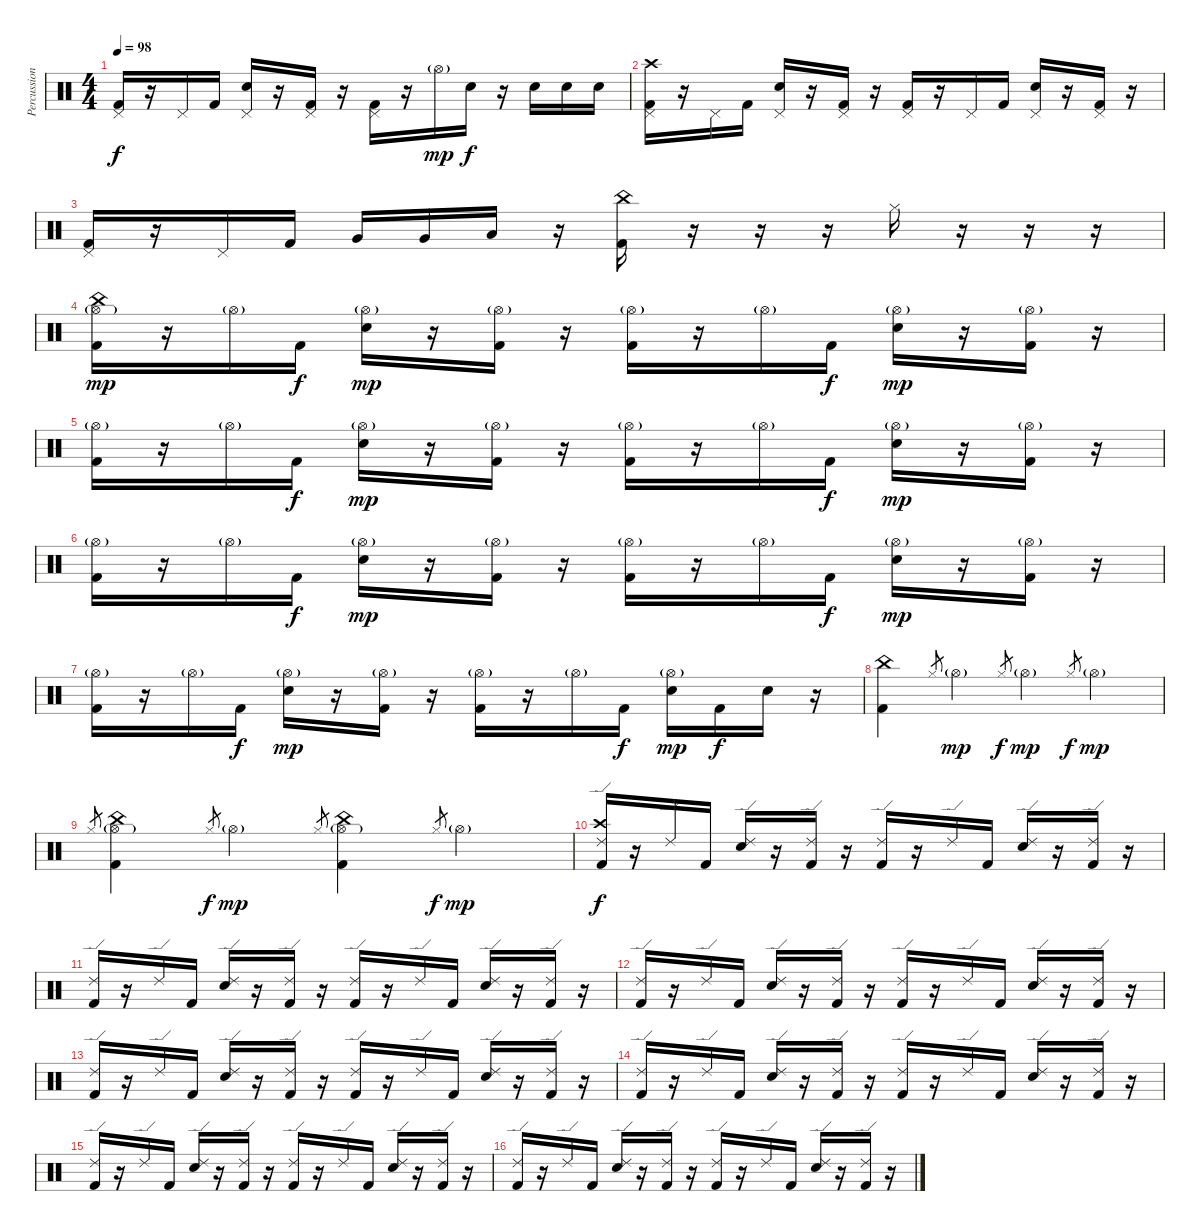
\track ("Percussions" "Percussion") {instrument percussion}
\staff {score}
\articulation defaults
\ts (4 4)
\tempo 98
\clef neutral
\ks c
("Pedal Hi-Hat (hit)" "Kick (hit) 2").16{dy f} r.16 "Pedal Hi-Hat (hit)".16 "Kick (hit) 2".16 ("Pedal Hi-Hat (hit)" "Snare (hit) 2").16 r.16 ("Pedal Hi-Hat (hit)" "Kick (hit) 2").16 r.16 ("Pedal Hi-Hat (hit)" "Kick (hit) 2").16 r.16 "Hi-Hat (open)"{g}.16{dy mp} "Snare (hit) 2".16{dy f} r.16 "Snare (hit) 2".16 "Snare (hit) 2".16 "Snare (hit) 2".16 |
("Pedal Hi-Hat (hit)" "Crash high (hit)" "Kick (hit) 2").16 r.16 "Pedal Hi-Hat (hit)".16 "Kick (hit) 2".16 ("Pedal Hi-Hat (hit)" "Snare (hit) 2").16 r.16 ("Pedal Hi-Hat (hit)" "Kick (hit) 2").16 r.16 ("Pedal Hi-Hat (hit)" "Kick (hit) 2").16 r.16 "Pedal Hi-Hat (hit)".16 "Kick (hit) 2".16 ("Pedal Hi-Hat (hit)" "Snare (hit) 2").16 r.16 ("Pedal Hi-Hat (hit)" "Kick (hit) 2").16 r.16 |
("Pedal Hi-Hat (hit)" "Kick (hit) 2").16 r.16 "Pedal Hi-Hat (hit)".16 "Kick (hit) 2".16 "Very Low Tom (hit)".16 "Very Low Tom (hit)".16 "Low Tom (hit)".16 r.16 ("China (hit)" "Kick (hit) 2").16 r.16 r.16 r.16 "Hi-Hat (closed)".16 r.16 r.16 r.16 |
("Hi-Hat (open)"{g} "China (hit)" "Kick (hit) 2").16{dy mp} r.16 "Hi-Hat (open)"{g}.16 "Kick (hit) 2".16{dy f} ("Hi-Hat (open)"{g} "Snare (hit) 2").16{dy mp} r.16 ("Hi-Hat (open)"{g} "Kick (hit) 2").16 r.16 ("Hi-Hat (open)"{g} "Kick (hit) 2").16 r.16 "Hi-Hat (open)"{g}.16 "Kick (hit) 2".16{dy f} ("Hi-Hat (open)"{g} "Snare (hit) 2").16{dy mp} r.16 ("Hi-Hat (open)"{g} "Kick (hit) 2").16 r.16 |
("Hi-Hat (open)"{g} "Kick (hit) 2").16 r.16 "Hi-Hat (open)"{g}.16 "Kick (hit) 2".16{dy f} ("Hi-Hat (open)"{g} "Snare (hit) 2").16{dy mp} r.16 ("Hi-Hat (open)"{g} "Kick (hit) 2").16 r.16 ("Hi-Hat (open)"{g} "Kick (hit) 2").16 r.16 "Hi-Hat (open)"{g}.16 "Kick (hit) 2".16{dy f} ("Hi-Hat (open)"{g} "Snare (hit) 2").16{dy mp} r.16 ("Hi-Hat (open)"{g} "Kick (hit) 2").16 r.16 |
("Hi-Hat (open)"{g} "Kick (hit) 2").16 r.16 "Hi-Hat (open)"{g}.16 "Kick (hit) 2".16{dy f} ("Hi-Hat (open)"{g} "Snare (hit) 2").16{dy mp} r.16 ("Hi-Hat (open)"{g} "Kick (hit) 2").16 r.16 ("Hi-Hat (open)"{g} "Kick (hit) 2").16 r.16 "Hi-Hat (open)"{g}.16 "Kick (hit) 2".16{dy f} ("Hi-Hat (open)"{g} "Snare (hit) 2").16{dy mp} r.16 ("Hi-Hat (open)"{g} "Kick (hit) 2").16 r.16 |
("Hi-Hat (open)"{g} "Kick (hit) 2").16 r.16 "Hi-Hat (open)"{g}.16 "Kick (hit) 2".16{dy f} ("Hi-Hat (open)"{g} "Snare (hit) 2").16{dy mp} r.16 ("Hi-Hat (open)"{g} "Kick (hit) 2").16 r.16 ("Hi-Hat (open)"{g} "Kick (hit) 2").16 r.16 "Hi-Hat (open)"{g}.16 "Kick (hit) 2".16{dy f} ("Hi-Hat (open)"{g} "Snare (hit) 2").16{dy mp} "Kick (hit) 2".16{dy f} "Snare (hit) 2".16 r.16 |
("Kick (hit) 2" "China (hit)").4 "Hi-Hat (closed)".8{gr} "Hi-Hat (open)"{g}.4{dy mp} "Hi-Hat (closed)".8{gr dy f} "Hi-Hat (open)"{g}.4{dy mp} "Hi-Hat (closed)".8{gr dy f} "Hi-Hat (open)"{g}.4{dy mp} |
"Hi-Hat (closed)".8{gr} ("Hi-Hat (open)"{g} "China (hit)" "Kick (hit) 2").4 "Hi-Hat (closed)".8{gr dy f} "Hi-Hat (open)"{g}.4{dy mp} "Hi-Hat (closed)".8{gr} ("Hi-Hat (open)"{g} "China (hit)" "Kick (hit) 2").4 "Hi-Hat (closed)".8{gr dy f} "Hi-Hat (open)"{g}.4{dy mp} |
("Ride (edge) 2" "Crash high (hit)" "Kick (hit) 2").16{dy f} r.16 "Ride (edge) 2".16 "Kick (hit) 2".16 ("Ride (edge) 2" "Snare (hit) 2").16 r.16 ("Ride (edge) 2" "Kick (hit) 2").16 r.16 ("Ride (edge) 2" "Kick (hit) 2").16 r.16 "Ride (edge) 2".16 "Kick (hit) 2".16 ("Ride (edge) 2" "Snare (hit) 2").16 r.16 ("Ride (edge) 2" "Kick (hit) 2").16 r.16 |
("Ride (edge) 2" "Kick (hit) 2").16 r.16 "Ride (edge) 2".16 "Kick (hit) 2".16 ("Ride (edge) 2" "Snare (hit) 2").16 r.16 ("Ride (edge) 2" "Kick (hit) 2").16 r.16 ("Ride (edge) 2" "Kick (hit) 2").16 r.16 "Ride (edge) 2".16 "Kick (hit) 2".16 ("Ride (edge) 2" "Snare (hit) 2").16 r.16 ("Ride (edge) 2" "Kick (hit) 2").16 r.16 |
("Ride (edge) 2" "Kick (hit) 2").16 r.16 "Ride (edge) 2".16 "Kick (hit) 2".16 ("Ride (edge) 2" "Snare (hit) 2").16 r.16 ("Ride (edge) 2" "Kick (hit) 2").16 r.16 ("Ride (edge) 2" "Kick (hit) 2").16 r.16 "Ride (edge) 2".16 "Kick (hit) 2".16 ("Ride (edge) 2" "Snare (hit) 2").16 r.16 ("Ride (edge) 2" "Kick (hit) 2").16 r.16 |
("Ride (edge) 2" "Kick (hit) 2").16 r.16 "Ride (edge) 2".16 "Kick (hit) 2".16 ("Ride (edge) 2" "Snare (hit) 2").16 r.16 ("Ride (edge) 2" "Kick (hit) 2").16 r.16 ("Ride (edge) 2" "Kick (hit) 2").16 r.16 "Ride (edge) 2".16 "Kick (hit) 2".16 ("Ride (edge) 2" "Snare (hit) 2").16 r.16 ("Ride (edge) 2" "Kick (hit) 2").16 r.16 |
("Ride (edge) 2" "Kick (hit) 2").16 r.16 "Ride (edge) 2".16 "Kick (hit) 2".16 ("Ride (edge) 2" "Snare (hit) 2").16 r.16 ("Ride (edge) 2" "Kick (hit) 2").16 r.16 ("Ride (edge) 2" "Kick (hit) 2").16 r.16 "Ride (edge) 2".16 "Kick (hit) 2".16 ("Ride (edge) 2" "Snare (hit) 2").16 r.16 ("Ride (edge) 2" "Kick (hit) 2").16 r.16 |
("Ride (edge) 2" "Kick (hit) 2").16 r.16 "Ride (edge) 2".16 "Kick (hit) 2".16 ("Ride (edge) 2" "Snare (hit) 2").16 r.16 ("Ride (edge) 2" "Kick (hit) 2").16 r.16 ("Ride (edge) 2" "Kick (hit) 2").16 r.16 "Ride (edge) 2".16 "Kick (hit) 2".16 ("Ride (edge) 2" "Snare (hit) 2").16 r.16 ("Ride (edge) 2" "Kick (hit) 2").16 r.16 |
("Ride (edge) 2" "Kick (hit) 2").16 r.16 "Ride (edge) 2".16 "Kick (hit) 2".16 ("Ride (edge) 2" "Snare (hit) 2").16 r.16 ("Ride (edge) 2" "Kick (hit) 2").16 r.16 ("Ride (edge) 2" "Kick (hit) 2").16 r.16 "Ride (edge) 2".16 "Kick (hit) 2".16 ("Ride (edge) 2" "Snare (hit) 2").16 r.16 ("Ride (edge) 2" "Kick (hit) 2").16 r.16
